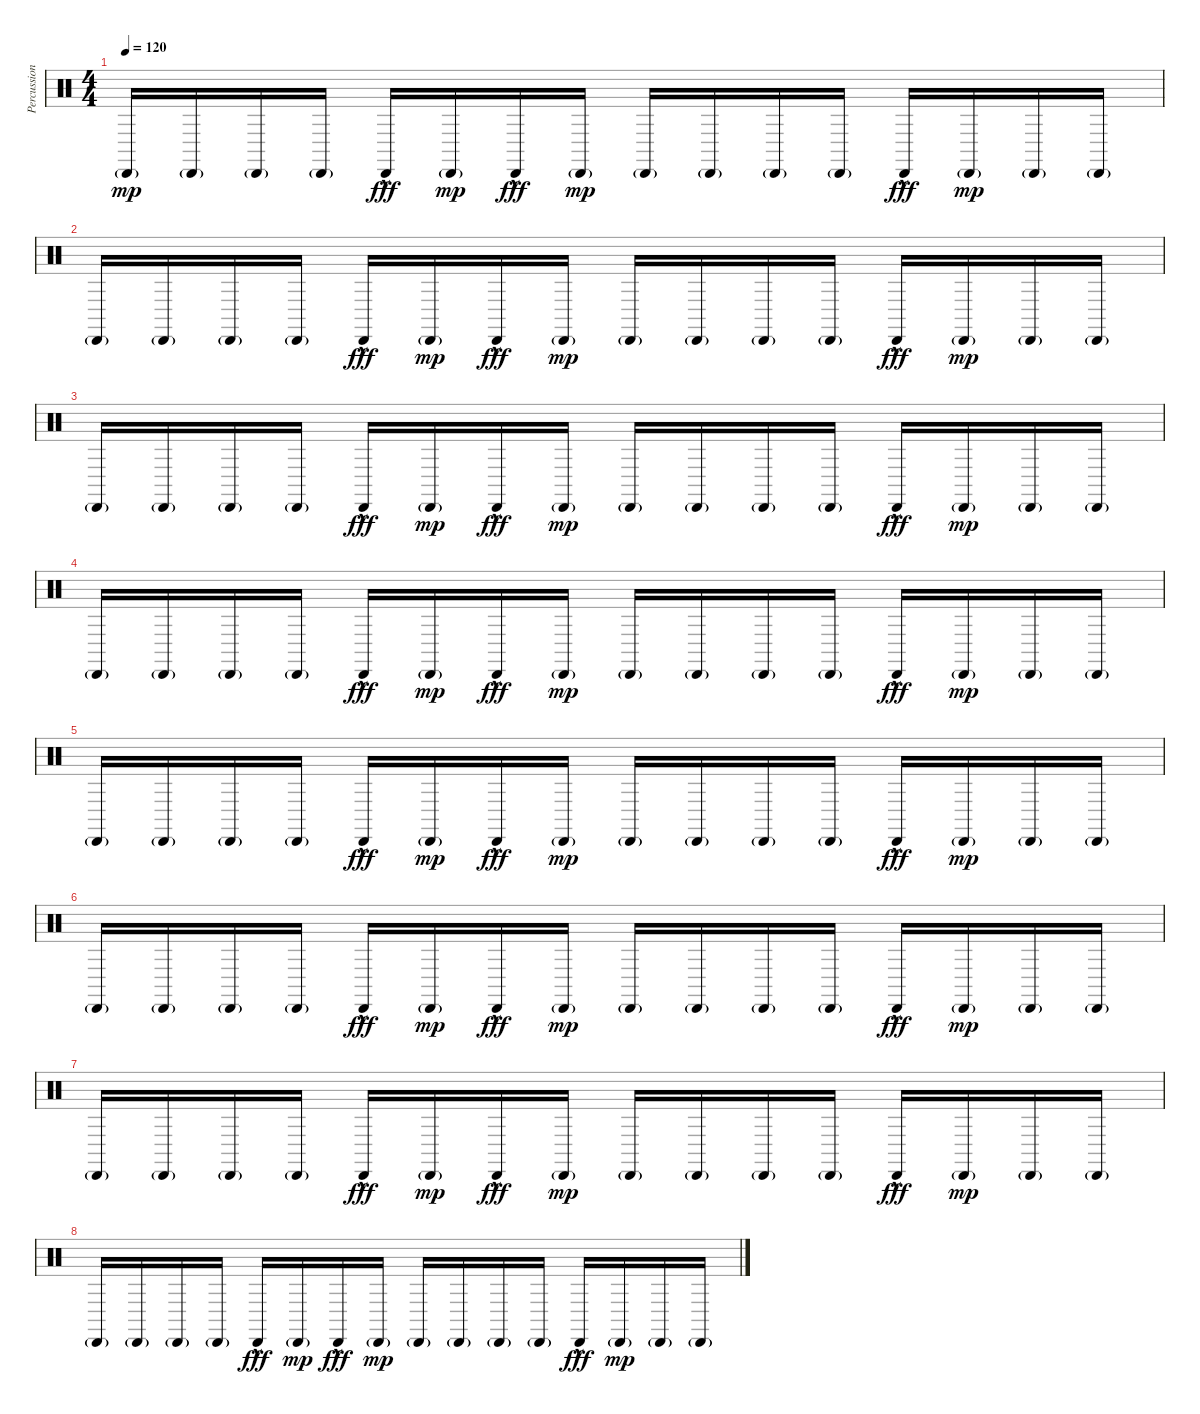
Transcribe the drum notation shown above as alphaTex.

\track ("Percussions" "Percussion") {instrument percussion}
\staff {score}
\articulation defaults
\ts (4 4)
\tempo 120
\clef neutral
\ks c "Cabasa (hit)"{g}.16{dy mp} "Cabasa (hit)"{g}.16 "Cabasa (hit)"{g}.16 "Cabasa (hit)"{g}.16 "Cabasa (hit)"{hac}.16{dy fff} "Cabasa (hit)"{g}.16{dy mp} "Cabasa (hit)"{hac}.16{dy fff} "Cabasa (hit)"{g}.16{dy mp} "Cabasa (hit)"{g}.16 "Cabasa (hit)"{g}.16 "Cabasa (hit)"{g}.16 "Cabasa (hit)"{g}.16 "Cabasa (hit)"{hac}.16{dy fff} "Cabasa (hit)"{g}.16{dy mp} "Cabasa (hit)"{g}.16 "Cabasa (hit)"{g}.16
|
"Cabasa (hit)"{g}.16 "Cabasa (hit)"{g}.16 "Cabasa (hit)"{g}.16 "Cabasa (hit)"{g}.16 "Cabasa (hit)"{hac}.16{dy fff} "Cabasa (hit)"{g}.16{dy mp} "Cabasa (hit)"{hac}.16{dy fff} "Cabasa (hit)"{g}.16{dy mp} "Cabasa (hit)"{g}.16 "Cabasa (hit)"{g}.16 "Cabasa (hit)"{g}.16 "Cabasa (hit)"{g}.16 "Cabasa (hit)"{hac}.16{dy fff} "Cabasa (hit)"{g}.16{dy mp} "Cabasa (hit)"{g}.16 "Cabasa (hit)"{g}.16 |
"Cabasa (hit)"{g}.16 "Cabasa (hit)"{g}.16 "Cabasa (hit)"{g}.16 "Cabasa (hit)"{g}.16 "Cabasa (hit)"{hac}.16{dy fff} "Cabasa (hit)"{g}.16{dy mp} "Cabasa (hit)"{hac}.16{dy fff} "Cabasa (hit)"{g}.16{dy mp} "Cabasa (hit)"{g}.16 "Cabasa (hit)"{g}.16 "Cabasa (hit)"{g}.16 "Cabasa (hit)"{g}.16 "Cabasa (hit)"{hac}.16{dy fff} "Cabasa (hit)"{g}.16{dy mp} "Cabasa (hit)"{g}.16 "Cabasa (hit)"{g}.16 |
"Cabasa (hit)"{g}.16 "Cabasa (hit)"{g}.16 "Cabasa (hit)"{g}.16 "Cabasa (hit)"{g}.16 "Cabasa (hit)"{hac}.16{dy fff} "Cabasa (hit)"{g}.16{dy mp} "Cabasa (hit)"{hac}.16{dy fff} "Cabasa (hit)"{g}.16{dy mp} "Cabasa (hit)"{g}.16 "Cabasa (hit)"{g}.16 "Cabasa (hit)"{g}.16 "Cabasa (hit)"{g}.16 "Cabasa (hit)"{hac}.16{dy fff} "Cabasa (hit)"{g}.16{dy mp} "Cabasa (hit)"{g}.16 "Cabasa (hit)"{g}.16 |
"Cabasa (hit)"{g}.16 "Cabasa (hit)"{g}.16 "Cabasa (hit)"{g}.16 "Cabasa (hit)"{g}.16 "Cabasa (hit)"{hac}.16{dy fff} "Cabasa (hit)"{g}.16{dy mp} "Cabasa (hit)"{hac}.16{dy fff} "Cabasa (hit)"{g}.16{dy mp} "Cabasa (hit)"{g}.16 "Cabasa (hit)"{g}.16 "Cabasa (hit)"{g}.16 "Cabasa (hit)"{g}.16 "Cabasa (hit)"{hac}.16{dy fff} "Cabasa (hit)"{g}.16{dy mp} "Cabasa (hit)"{g}.16 "Cabasa (hit)"{g}.16 |
"Cabasa (hit)"{g}.16 "Cabasa (hit)"{g}.16 "Cabasa (hit)"{g}.16 "Cabasa (hit)"{g}.16 "Cabasa (hit)"{hac}.16{dy fff} "Cabasa (hit)"{g}.16{dy mp} "Cabasa (hit)"{hac}.16{dy fff} "Cabasa (hit)"{g}.16{dy mp} "Cabasa (hit)"{g}.16 "Cabasa (hit)"{g}.16 "Cabasa (hit)"{g}.16 "Cabasa (hit)"{g}.16 "Cabasa (hit)"{hac}.16{dy fff} "Cabasa (hit)"{g}.16{dy mp} "Cabasa (hit)"{g}.16 "Cabasa (hit)"{g}.16 |
"Cabasa (hit)"{g}.16 "Cabasa (hit)"{g}.16 "Cabasa (hit)"{g}.16 "Cabasa (hit)"{g}.16 "Cabasa (hit)"{hac}.16{dy fff} "Cabasa (hit)"{g}.16{dy mp} "Cabasa (hit)"{hac}.16{dy fff} "Cabasa (hit)"{g}.16{dy mp} "Cabasa (hit)"{g}.16 "Cabasa (hit)"{g}.16 "Cabasa (hit)"{g}.16 "Cabasa (hit)"{g}.16 "Cabasa (hit)"{hac}.16{dy fff} "Cabasa (hit)"{g}.16{dy mp} "Cabasa (hit)"{g}.16 "Cabasa (hit)"{g}.16 |
"Cabasa (hit)"{g}.16 "Cabasa (hit)"{g}.16 "Cabasa (hit)"{g}.16 "Cabasa (hit)"{g}.16 "Cabasa (hit)"{hac}.16{dy fff} "Cabasa (hit)"{g}.16{dy mp} "Cabasa (hit)"{hac}.16{dy fff} "Cabasa (hit)"{g}.16{dy mp} "Cabasa (hit)"{g}.16 "Cabasa (hit)"{g}.16 "Cabasa (hit)"{g}.16 "Cabasa (hit)"{g}.16 "Cabasa (hit)"{hac}.16{dy fff} "Cabasa (hit)"{g}.16{dy mp} "Cabasa (hit)"{g}.16 "Cabasa (hit)"{g}.16
